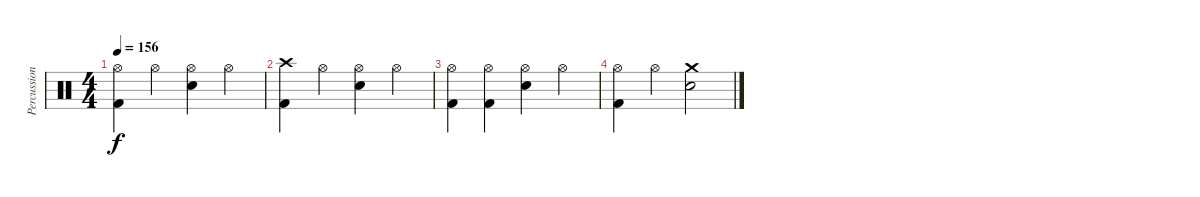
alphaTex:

\track ("Percussions" "Percussion") {instrument percussion}
\staff {score}
\articulation defaults
\ts (4 4)
\tempo 156
\clef neutral
\ks c
("Hi-Hat (open)" "Kick (hit) 2").4{dy f} "Hi-Hat (open)".4 ("Hi-Hat (open)" "Electric Snare (hit)").4 "Hi-Hat (open)".4 |
("Crash high (hit)" "Kick (hit) 2").4 "Hi-Hat (open)".4 ("Hi-Hat (open)" "Electric Snare (hit)").4 "Hi-Hat (open)".4 |
("Hi-Hat (open)" "Kick (hit) 2").4 ("Hi-Hat (open)" "Kick (hit) 2").4 ("Hi-Hat (open)" "Electric Snare (hit)").4 "Hi-Hat (open)".4 |
("Hi-Hat (open)" "Kick (hit) 2").4 "Hi-Hat (open)".4 ("Crash medium (hit)" "Electric Snare (hit)").2
